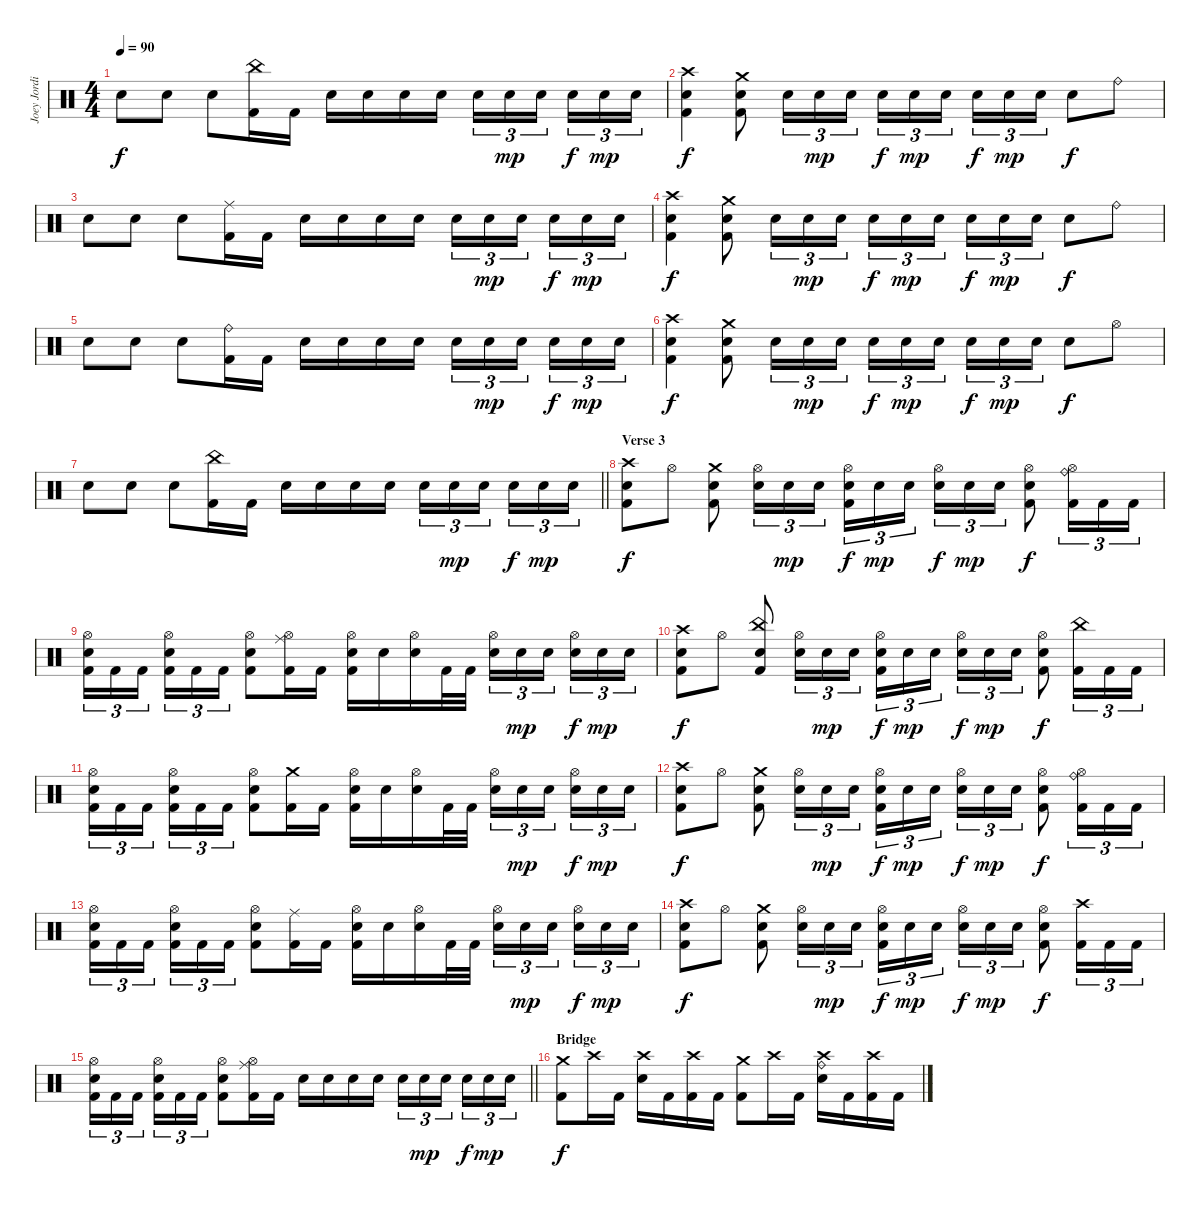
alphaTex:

\track ("Joey Jordison" "Joey Jordi") {instrument percussion}
\staff {score}
\articulation defaults
\ts (4 4)
\tempo 90
\clef neutral
\ks c "Electric Snare (hit)".8{dy f} "Electric Snare (hit)".8 "Electric Snare (hit)".8
("China (hit)" "Kick (hit) 2").16 "Kick (hit) 2".16 "Electric Snare (hit)".16 "Electric Snare (hit)".16 "Electric Snare (hit)".16 "Electric Snare (hit)".16 "Electric Snare (hit)".16{tu (3 2)} "Electric Snare (hit)".16{tu (3 2) dy mp} "Electric Snare (hit)".16{tu (3 2) beam splitsecondary} "Electric Snare (hit)".16{tu (3 2) dy f} "Electric Snare (hit)".16{tu (3 2) dy mp} "Electric Snare (hit)".16{tu (3 2)} |
("Crash high (hit)" "Electric Snare (hit)" "Kick (hit) 2").4{dy f} ("Crash medium (hit)" "Electric Snare (hit)" "Kick (hit) 2").8 "Electric Snare (hit)".16{tu (3 2)} "Electric Snare (hit)".16{tu (3 2) dy mp} "Electric Snare (hit)".16{tu (3 2)} "Electric Snare (hit)".16{tu (3 2) dy f} "Electric Snare (hit)".16{tu (3 2) dy mp} "Electric Snare (hit)".16{tu (3 2) beam splitsecondary} "Electric Snare (hit)".16{tu (3 2) dy f} "Electric Snare (hit)".16{tu (3 2) dy mp} "Electric Snare (hit)".16{tu (3 2)} "Electric Snare (hit)".8{dy f} "Ride (bell)".8 |
"Electric Snare (hit)".8 "Electric Snare (hit)".8 "Electric Snare (hit)".8 ("Ride (middle)" "Kick (hit) 2").16 "Kick (hit) 2".16 "Electric Snare (hit)".16 "Electric Snare (hit)".16 "Electric Snare (hit)".16 "Electric Snare (hit)".16 "Electric Snare (hit)".16{tu (3 2)} "Electric Snare (hit)".16{tu (3 2) dy mp} "Electric Snare (hit)".16{tu (3 2) beam splitsecondary} "Electric Snare (hit)".16{tu (3 2) dy f} "Electric Snare (hit)".16{tu (3 2) dy mp} "Electric Snare (hit)".16{tu (3 2)} |
("Crash high (hit)" "Electric Snare (hit)" "Kick (hit) 2").4{dy f} ("Crash medium (hit)" "Electric Snare (hit)" "Kick (hit) 2").8 "Electric Snare (hit)".16{tu (3 2)} "Electric Snare (hit)".16{tu (3 2) dy mp} "Electric Snare (hit)".16{tu (3 2)} "Electric Snare (hit)".16{tu (3 2) dy f} "Electric Snare (hit)".16{tu (3 2) dy mp} "Electric Snare (hit)".16{tu (3 2) beam splitsecondary} "Electric Snare (hit)".16{tu (3 2) dy f} "Electric Snare (hit)".16{tu (3 2) dy mp} "Electric Snare (hit)".16{tu (3 2)} "Electric Snare (hit)".8{dy f} "Ride (bell)".8 |
"Electric Snare (hit)".8 "Electric Snare (hit)".8 "Electric Snare (hit)".8 ("Ride (bell)" "Kick (hit) 2").16 "Kick (hit) 2".16 "Electric Snare (hit)".16 "Electric Snare (hit)".16 "Electric Snare (hit)".16 "Electric Snare (hit)".16 "Electric Snare (hit)".16{tu (3 2)} "Electric Snare (hit)".16{tu (3 2) dy mp} "Electric Snare (hit)".16{tu (3 2) beam splitsecondary} "Electric Snare (hit)".16{tu (3 2) dy f} "Electric Snare (hit)".16{tu (3 2) dy mp} "Electric Snare (hit)".16{tu (3 2)} |
("Crash high (hit)" "Electric Snare (hit)" "Kick (hit) 2").4{dy f} ("Crash medium (hit)" "Electric Snare (hit)" "Kick (hit) 2").8 "Electric Snare (hit)".16{tu (3 2)} "Electric Snare (hit)".16{tu (3 2) dy mp} "Electric Snare (hit)".16{tu (3 2)} "Electric Snare (hit)".16{tu (3 2) dy f} "Electric Snare (hit)".16{tu (3 2) dy mp} "Electric Snare (hit)".16{tu (3 2) beam splitsecondary} "Electric Snare (hit)".16{tu (3 2) dy f} "Electric Snare (hit)".16{tu (3 2) dy mp} "Electric Snare (hit)".16{tu (3 2)} "Electric Snare (hit)".8{dy f} "Hi-Hat (open)".8 |
\barLineRight lightlight "Electric Snare (hit)".8 "Electric Snare (hit)".8 "Electric Snare (hit)".8
("China (hit)" "Kick (hit) 2").16 "Kick (hit) 2".16 "Electric Snare (hit)".16 "Electric Snare (hit)".16 "Electric Snare (hit)".16 "Electric Snare (hit)".16 "Electric Snare (hit)".16{tu (3 2)} "Electric Snare (hit)".16{tu (3 2) dy mp} "Electric Snare (hit)".16{tu (3 2) beam splitsecondary} "Electric Snare (hit)".16{tu (3 2) dy f} "Electric Snare (hit)".16{tu (3 2) dy mp} "Electric Snare (hit)".16{tu (3 2)} |
\section ("" "Verse 3")
("Crash high (hit)" "Electric Snare (hit)" "Kick (hit) 2").8{dy f} "Hi-Hat (open)".8 ("Crash medium (hit)" "Electric Snare (hit)" "Kick (hit) 2").8 ("Hi-Hat (open)" "Electric Snare (hit)").16{tu (3 2)} "Electric Snare (hit)".16{tu (3 2) dy mp} "Electric Snare (hit)".16{tu (3 2)} ("Hi-Hat (open)" "Electric Snare (hit)" "Kick (hit) 2").16{tu (3 2) dy f} "Electric Snare (hit)".16{tu (3 2) dy mp} "Electric Snare (hit)".16{tu (3 2) beam splitsecondary} ("Hi-Hat (open)" "Electric Snare (hit)").16{tu (3 2) dy f} "Electric Snare (hit)".16{tu (3 2) dy mp} "Electric Snare (hit)".16{tu (3 2)} ("Hi-Hat (open)" "Electric Snare (hit)" "Kick (hit) 2").8{dy f} ("Hi-Hat (open)" "Ride (bell)" "Kick (hit) 2").16{tu (3 2)} "Kick (hit) 2".16{tu (3 2)} "Kick (hit) 2".16{tu (3 2)} |
("Hi-Hat (open)" "Electric Snare (hit)" "Kick (hit) 2").16{tu (3 2)} "Kick (hit) 2".16{tu (3 2)} "Kick (hit) 2".16{tu (3 2) beam splitsecondary} ("Hi-Hat (open)" "Electric Snare (hit)" "Kick (hit) 2").16{tu (3 2)} "Kick (hit) 2".16{tu (3 2)} "Kick (hit) 2".16{tu (3 2)} ("Hi-Hat (open)" "Electric Snare (hit)" "Kick (hit) 2").8 ("Hi-Hat (open)" "Ride (middle)" "Kick (hit) 2").16 "Kick (hit) 2".16 ("Hi-Hat (open)" "Electric Snare (hit)" "Kick (hit) 2").16 "Electric Snare (hit)".16 ("Hi-Hat (open)" "Electric Snare (hit)").16 "Kick (hit) 2".32 "Kick (hit) 2".32 ("Hi-Hat (open)" "Electric Snare (hit)").16{tu (3 2)} "Electric Snare (hit)".16{tu (3 2) dy mp} "Electric Snare (hit)".16{tu (3 2) beam splitsecondary} ("Hi-Hat (open)" "Electric Snare (hit)").16{tu (3 2) dy f} "Electric Snare (hit)".16{tu (3 2) dy mp} "Electric Snare (hit)".16{tu (3 2)} |
("Crash high (hit)" "Electric Snare (hit)" "Kick (hit) 2").8{dy f} "Hi-Hat (open)".8 ("China (hit)" "Electric Snare (hit)" "Kick (hit) 2").8 ("Hi-Hat (open)" "Electric Snare (hit)").16{tu (3 2)} "Electric Snare (hit)".16{tu (3 2) dy mp} "Electric Snare (hit)".16{tu (3 2)} ("Hi-Hat (open)" "Electric Snare (hit)" "Kick (hit) 2").16{tu (3 2) dy f} "Electric Snare (hit)".16{tu (3 2) dy mp} "Electric Snare (hit)".16{tu (3 2) beam splitsecondary} ("Hi-Hat (open)" "Electric Snare (hit)").16{tu (3 2) dy f} "Electric Snare (hit)".16{tu (3 2) dy mp} "Electric Snare (hit)".16{tu (3 2)} ("Hi-Hat (open)" "Electric Snare (hit)" "Kick (hit) 2").8{dy f} ("China (hit)" "Kick (hit) 2").16{tu (3 2)} "Kick (hit) 2".16{tu (3 2)} "Kick (hit) 2".16{tu (3 2)} |
("Hi-Hat (open)" "Electric Snare (hit)" "Kick (hit) 2").16{tu (3 2)} "Kick (hit) 2".16{tu (3 2)} "Kick (hit) 2".16{tu (3 2) beam splitsecondary} ("Hi-Hat (open)" "Electric Snare (hit)" "Kick (hit) 2").16{tu (3 2)} "Kick (hit) 2".16{tu (3 2)} "Kick (hit) 2".16{tu (3 2)} ("Hi-Hat (open)" "Electric Snare (hit)" "Kick (hit) 2").8 ("Crash medium (hit)" "Kick (hit) 2").16 "Kick (hit) 2".16 ("Hi-Hat (open)" "Electric Snare (hit)" "Kick (hit) 2").16 "Electric Snare (hit)".16 ("Hi-Hat (open)" "Electric Snare (hit)").16 "Kick (hit) 2".32 "Kick (hit) 2".32 ("Hi-Hat (open)" "Electric Snare (hit)").16{tu (3 2)} "Electric Snare (hit)".16{tu (3 2) dy mp} "Electric Snare (hit)".16{tu (3 2) beam splitsecondary} ("Hi-Hat (open)" "Electric Snare (hit)").16{tu (3 2) dy f} "Electric Snare (hit)".16{tu (3 2) dy mp} "Electric Snare (hit)".16{tu (3 2)} |
("Crash high (hit)" "Electric Snare (hit)" "Kick (hit) 2").8{dy f} "Hi-Hat (open)".8 ("Crash medium (hit)" "Electric Snare (hit)" "Kick (hit) 2").8 ("Hi-Hat (open)" "Electric Snare (hit)").16{tu (3 2)} "Electric Snare (hit)".16{tu (3 2) dy mp} "Electric Snare (hit)".16{tu (3 2)} ("Hi-Hat (open)" "Electric Snare (hit)" "Kick (hit) 2").16{tu (3 2) dy f} "Electric Snare (hit)".16{tu (3 2) dy mp} "Electric Snare (hit)".16{tu (3 2) beam splitsecondary} ("Hi-Hat (open)" "Electric Snare (hit)").16{tu (3 2) dy f} "Electric Snare (hit)".16{tu (3 2) dy mp} "Electric Snare (hit)".16{tu (3 2)} ("Hi-Hat (open)" "Electric Snare (hit)" "Kick (hit) 2").8{dy f} ("Hi-Hat (open)" "Ride (bell)" "Kick (hit) 2").16{tu (3 2)} "Kick (hit) 2".16{tu (3 2)} "Kick (hit) 2".16{tu (3 2)} |
("Hi-Hat (open)" "Electric Snare (hit)" "Kick (hit) 2").16{tu (3 2)} "Kick (hit) 2".16{tu (3 2)} "Kick (hit) 2".16{tu (3 2) beam splitsecondary} ("Hi-Hat (open)" "Electric Snare (hit)" "Kick (hit) 2").16{tu (3 2)} "Kick (hit) 2".16{tu (3 2)} "Kick (hit) 2".16{tu (3 2)} ("Hi-Hat (open)" "Electric Snare (hit)" "Kick (hit) 2").8 ("Ride (middle)" "Kick (hit) 2").16 "Kick (hit) 2".16 ("Hi-Hat (open)" "Electric Snare (hit)" "Kick (hit) 2").16 "Electric Snare (hit)".16 ("Hi-Hat (open)" "Electric Snare (hit)").16 "Kick (hit) 2".32 "Kick (hit) 2".32 ("Hi-Hat (open)" "Electric Snare (hit)").16{tu (3 2)} "Electric Snare (hit)".16{tu (3 2) dy mp} "Electric Snare (hit)".16{tu (3 2) beam splitsecondary} ("Hi-Hat (open)" "Electric Snare (hit)").16{tu (3 2) dy f} "Electric Snare (hit)".16{tu (3 2) dy mp} "Electric Snare (hit)".16{tu (3 2)} |
("Crash high (hit)" "Electric Snare (hit)" "Kick (hit) 2").8{dy f} "Hi-Hat (open)".8 ("Crash medium (hit)" "Electric Snare (hit)" "Kick (hit) 2").8 ("Hi-Hat (open)" "Electric Snare (hit)").16{tu (3 2)} "Electric Snare (hit)".16{tu (3 2) dy mp} "Electric Snare (hit)".16{tu (3 2)} ("Hi-Hat (open)" "Electric Snare (hit)" "Kick (hit) 2").16{tu (3 2) dy f} "Electric Snare (hit)".16{tu (3 2) dy mp} "Electric Snare (hit)".16{tu (3 2) beam splitsecondary} ("Hi-Hat (open)" "Electric Snare (hit)").16{tu (3 2) dy f} "Electric Snare (hit)".16{tu (3 2) dy mp} "Electric Snare (hit)".16{tu (3 2)} ("Hi-Hat (open)" "Electric Snare (hit)" "Kick (hit) 2").8{dy f} ("Crash high (hit)" "Kick (hit) 2").16{tu (3 2)} "Kick (hit) 2".16{tu (3 2)} "Kick (hit) 2".16{tu (3 2)} |
\barLineRight lightlight
("Hi-Hat (open)" "Electric Snare (hit)" "Kick (hit) 2").16{tu (3 2)} "Kick (hit) 2".16{tu (3 2)} "Kick (hit) 2".16{tu (3 2) beam splitsecondary} ("Hi-Hat (open)" "Electric Snare (hit)" "Kick (hit) 2").16{tu (3 2)} "Kick (hit) 2".16{tu (3 2)} "Kick (hit) 2".16{tu (3 2)} ("Hi-Hat (open)" "Electric Snare (hit)" "Kick (hit) 2").8 ("Hi-Hat (open)" "Ride (middle)" "Kick (hit) 2").16 "Kick (hit) 2".16 "Electric Snare (hit)".16 "Electric Snare (hit)".16 "Electric Snare (hit)".16 "Electric Snare (hit)".16 "Electric Snare (hit)".16{tu (3 2)} "Electric Snare (hit)".16{tu (3 2) dy mp} "Electric Snare (hit)".16{tu (3 2) beam splitsecondary} "Electric Snare (hit)".16{tu (3 2) dy f} "Electric Snare (hit)".16{tu (3 2) dy mp} "Electric Snare (hit)".16{tu (3 2)} |
\section ("" "Bridge")
("Crash medium (hit)" "Kick (hit) 2").8{dy f} "Crash high (hit)".16 "Kick (hit) 2".16 ("Crash high (hit)" "Electric Snare (hit)").16 "Kick (hit) 2".16 ("Crash high (hit)" "Kick (hit) 2").16 "Kick (hit) 2".16 ("Crash medium (hit)" "Kick (hit) 2").8 "Crash high (hit)".16 "Kick (hit) 2".16 ("Crash high (hit)" "Ride (bell)" "Electric Snare (hit)").16 "Kick (hit) 2".16 ("Crash high (hit)" "Kick (hit) 2").16 "Kick (hit) 2".16
